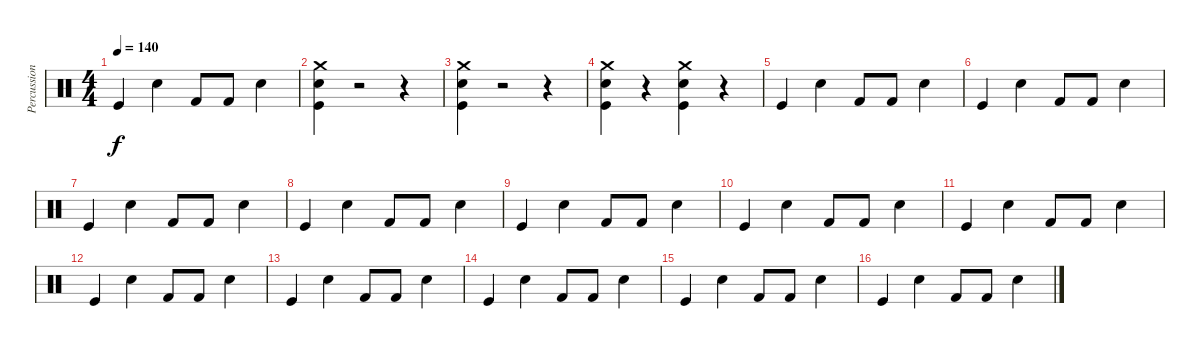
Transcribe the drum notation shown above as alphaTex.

\track ("Percussions" "Percussion") {instrument percussion}
\staff {score}
\articulation defaults
\ts (4 4)
\tempo 140
\clef neutral
\ks c "Kick (hit)".4{dy f} "Snare (hit) 2".4 "Kick (hit) 2".8 "Kick (hit) 2".8 "Snare (hit) 2".4
|
("Crash medium (hit)" "Snare (hit) 2" "Kick (hit)").4 r.2 r.4 |
("Crash medium (hit)" "Snare (hit) 2" "Kick (hit)").4 r.2 r.4 |
("Crash medium (hit)" "Snare (hit) 2" "Kick (hit)").4 r.4 ("Crash medium (hit)" "Snare (hit) 2" "Kick (hit)").4 r.4 |
"Kick (hit)".4 "Snare (hit) 2".4 "Kick (hit) 2".8 "Kick (hit) 2".8 "Snare (hit) 2".4 |
"Kick (hit)".4 "Snare (hit) 2".4 "Kick (hit) 2".8 "Kick (hit) 2".8 "Snare (hit) 2".4 |
"Kick (hit)".4 "Snare (hit) 2".4 "Kick (hit) 2".8 "Kick (hit) 2".8 "Snare (hit) 2".4 |
"Kick (hit)".4 "Snare (hit) 2".4 "Kick (hit) 2".8 "Kick (hit) 2".8 "Snare (hit) 2".4 |
"Kick (hit)".4 "Snare (hit) 2".4 "Kick (hit) 2".8 "Kick (hit) 2".8 "Snare (hit) 2".4 |
"Kick (hit)".4 "Snare (hit) 2".4 "Kick (hit) 2".8 "Kick (hit) 2".8 "Snare (hit) 2".4 |
"Kick (hit)".4 "Snare (hit) 2".4 "Kick (hit) 2".8 "Kick (hit) 2".8 "Snare (hit) 2".4 |
"Kick (hit)".4 "Snare (hit) 2".4 "Kick (hit) 2".8 "Kick (hit) 2".8 "Snare (hit) 2".4 |
"Kick (hit)".4 "Snare (hit) 2".4 "Kick (hit) 2".8 "Kick (hit) 2".8 "Snare (hit) 2".4 |
"Kick (hit)".4 "Snare (hit) 2".4 "Kick (hit) 2".8 "Kick (hit) 2".8 "Snare (hit) 2".4 |
"Kick (hit)".4 "Snare (hit) 2".4 "Kick (hit) 2".8 "Kick (hit) 2".8 "Snare (hit) 2".4 |
"Kick (hit)".4 "Snare (hit) 2".4 "Kick (hit) 2".8 "Kick (hit) 2".8 "Snare (hit) 2".4
